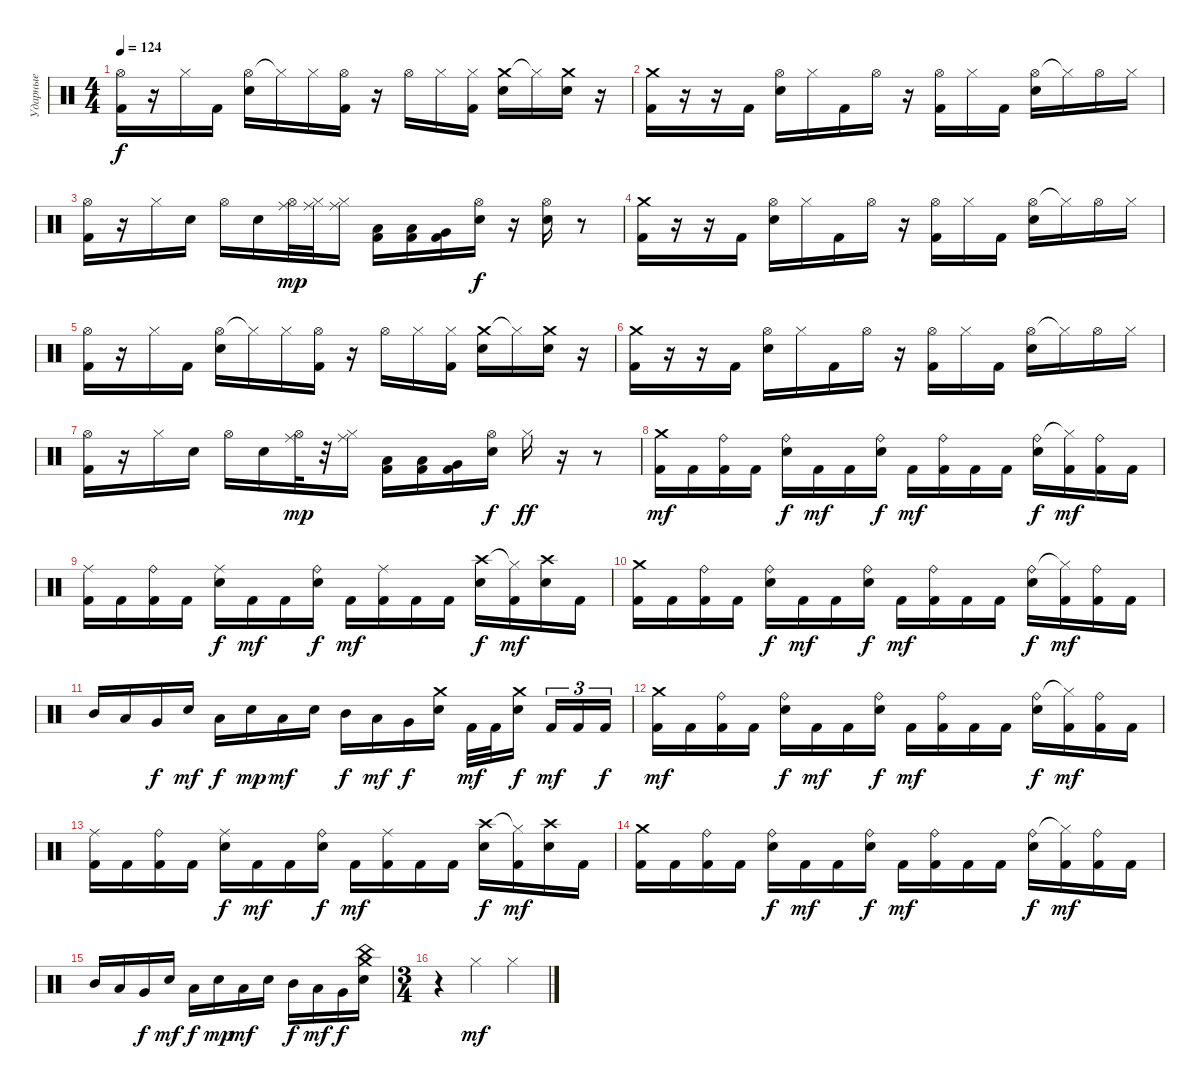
\track ("Ударные" "Ударные") {instrument percussion bank 127}
\staff
\articulation defaults
\ts (4 4)
\tempo 124
\clef neutral
\ks c
("Hi-Hat (open)" "Kick (hit) 2").16{dy f} r.16 "Hi-Hat (closed)".16 "Kick (hit) 2".16 ("Hi-Hat (open)" "Snare (hit) 2").16 "Hi-Hat (closed)"{t}.16 "Hi-Hat (closed)".16 ("Hi-Hat (open)" "Kick (hit) 2").16 r.16 "Hi-Hat (open)".16 "Hi-Hat (closed)".16 ("Hi-Hat (closed)" "Kick (hit) 2").16 ("Crash medium (hit)" "Snare (hit) 2").16 "Hi-Hat (closed)"{t}.16 ("Crash medium (hit)" "Snare (hit) 2").16 r.16 |
("Crash medium (hit)" "Kick (hit) 2").16 r.16 r.16 "Kick (hit) 2".16 ("Hi-Hat (open)" "Snare (hit) 2").16 "Hi-Hat (closed)".16 "Kick (hit) 2".16 "Hi-Hat (open)".16 r.16 ("Hi-Hat (open)" "Kick (hit) 2").16 "Hi-Hat (closed)".16 "Kick (hit) 2".16 ("Hi-Hat (open)" "Snare (hit) 2").16 "Hi-Hat (closed)"{t}.16 "Hi-Hat (open)".16 "Hi-Hat (closed)".16 |
("Hi-Hat (open)" "Kick (hit) 2").16 r.16 "Hi-Hat (closed)".16 "Snare (hit) 2".16 "Hi-Hat (open)".16 "Snare (hit) 2".16 ("Hi-Hat (open)" "Ride (middle)").32{dy mp} ("Hi-Hat (closed)" "Ride (middle)").32 ("Hi-Hat (closed)" "Ride (middle)").16 ("Low Tom (hit)" "Kick (hit) 2").16 ("Low Tom (hit)" "Kick (hit) 2").16 ("Very Low Tom (hit)" "Kick (hit) 2").16 ("Hi-Hat (open)" "Snare (hit) 2").16{dy f} r.16 ("Hi-Hat (open)" "Snare (hit) 2").16 r.8 |
("Crash medium (hit)" "Kick (hit) 2").16 r.16 r.16 "Kick (hit) 2".16 ("Hi-Hat (open)" "Snare (hit) 2").16 "Hi-Hat (closed)".16 "Kick (hit) 2".16 "Hi-Hat (open)".16 r.16 ("Hi-Hat (open)" "Kick (hit) 2").16 "Hi-Hat (closed)".16 "Kick (hit) 2".16 ("Hi-Hat (open)" "Snare (hit) 2").16 "Hi-Hat (closed)"{t}.16 "Hi-Hat (open)".16 "Hi-Hat (closed)".16 |
("Hi-Hat (open)" "Kick (hit) 2").16 r.16 "Hi-Hat (closed)".16 "Kick (hit) 2".16 ("Hi-Hat (open)" "Snare (hit) 2").16 "Hi-Hat (closed)"{t}.16 "Hi-Hat (closed)".16 ("Hi-Hat (open)" "Kick (hit) 2").16 r.16 "Hi-Hat (open)".16 "Hi-Hat (closed)".16 ("Hi-Hat (closed)" "Kick (hit) 2").16 ("Crash medium (hit)" "Snare (hit) 2").16 "Hi-Hat (closed)"{t}.16 ("Crash medium (hit)" "Snare (hit) 2").16 r.16 |
("Crash medium (hit)" "Kick (hit) 2").16 r.16 r.16 "Kick (hit) 2".16 ("Hi-Hat (open)" "Snare (hit) 2").16 "Hi-Hat (closed)".16 "Kick (hit) 2".16 "Hi-Hat (open)".16 r.16 ("Hi-Hat (open)" "Kick (hit) 2").16 "Hi-Hat (closed)".16 "Kick (hit) 2".16 ("Hi-Hat (open)" "Snare (hit) 2").16 "Hi-Hat (closed)"{t}.16 "Hi-Hat (open)".16 "Hi-Hat (closed)".16 |
("Hi-Hat (open)" "Kick (hit) 2").16 r.16 "Hi-Hat (closed)".16 "Snare (hit) 2".16 "Hi-Hat (open)".16 "Snare (hit) 2".16 ("Hi-Hat (open)" "Ride (middle)").32{dy mp} r.32 ("Hi-Hat (closed)" "Ride (middle)").16 ("Low Tom (hit)" "Kick (hit) 2").16 ("Low Tom (hit)" "Kick (hit) 2").16 ("Very Low Tom (hit)" "Kick (hit) 2").16 ("Hi-Hat (open)" "Snare (hit) 2").16{dy f} "Hi-Hat (closed)".16{dy ff} r.16 r.8 |
("Crash medium (hit)" "Kick (hit) 2").16{dy mf} "Kick (hit) 2".16 ("Ride (bell)" "Kick (hit) 2").16 "Kick (hit) 2".16 ("Ride (bell)" "Snare (hit) 2").16{dy f} "Kick (hit) 2".16{dy mf} "Kick (hit) 2".16 ("Snare (hit) 2" "Ride (bell)").16{dy f} "Kick (hit) 2".16{dy mf} ("Ride (bell)" "Kick (hit) 2").16 "Kick (hit) 2".16 "Kick (hit) 2".16 ("Ride (bell)" "Snare (hit) 2").16{dy f} ("Hi-Hat (closed)"{t} "Kick (hit) 2").16{dy mf} ("Ride (bell)" "Kick (hit) 2").16 "Kick (hit) 2".16 |
("Ride (middle)" "Kick (hit) 2").16 "Kick (hit) 2".16 ("Ride (bell)" "Kick (hit) 2").16 "Kick (hit) 2".16 ("Ride (middle)" "Snare (hit) 2").16{dy f} "Kick (hit) 2".16{dy mf} "Kick (hit) 2".16 ("Snare (hit) 2" "Ride (bell)").16{dy f} "Kick (hit) 2".16{dy mf} ("Ride (middle)" "Kick (hit) 2").16 "Kick (hit) 2".16 "Kick (hit) 2".16 ("Crash high (hit)" "Snare (hit) 2").16{dy f} ("Hi-Hat (closed)"{t} "Kick (hit) 2").16{dy mf} ("Crash high (hit)" "Snare (hit) 2").16 "Kick (hit) 2".16 |
("Crash medium (hit)" "Kick (hit) 2").16 "Kick (hit) 2".16 ("Ride (bell)" "Kick (hit) 2").16 "Kick (hit) 2".16 ("Ride (bell)" "Snare (hit) 2").16{dy f} "Kick (hit) 2".16{dy mf} "Kick (hit) 2".16 ("Snare (hit) 2" "Ride (bell)").16{dy f} "Kick (hit) 2".16{dy mf} ("Ride (bell)" "Kick (hit) 2").16 "Kick (hit) 2".16 "Kick (hit) 2".16 ("Ride (bell)" "Snare (hit) 2").16{dy f} ("Hi-Hat (closed)"{t} "Kick (hit) 2").16{dy mf} ("Ride (bell)" "Kick (hit) 2").16 "Kick (hit) 2".16 |
"Mid Tom (hit)".16 "Low Tom (hit)".16 "Very Low Tom (hit)".16{dy f} "Metronome (bell)".16{dy mf} "Low Tom (hit)".16{dy f} "Metronome (bell)".16{dy mp} "Low Tom (hit)".16{dy mf} "Metronome (bell)".16 "Mid Tom (hit)".16{dy f} "Low Tom (hit)".16{dy mf} "Very Low Tom (hit)".16{dy f} ("Crash medium (hit)" "Snare (hit) 2").16 "Kick (hit) 2".32{dy mf} "Kick (hit) 2".32 ("Crash medium (hit)" "Snare (hit) 2").16{dy f beam splitsecondary} "Kick (hit) 2".16{tu (3 2) dy mf} "Kick (hit) 2".16{tu (3 2)} "Kick (hit) 2".16{tu (3 2) dy f} |
("Crash medium (hit)" "Kick (hit) 2").16{dy mf} "Kick (hit) 2".16 ("Ride (bell)" "Kick (hit) 2").16 "Kick (hit) 2".16 ("Ride (bell)" "Snare (hit) 2").16{dy f} "Kick (hit) 2".16{dy mf} "Kick (hit) 2".16 ("Snare (hit) 2" "Ride (bell)").16{dy f} "Kick (hit) 2".16{dy mf} ("Ride (bell)" "Kick (hit) 2").16 "Kick (hit) 2".16 "Kick (hit) 2".16 ("Ride (bell)" "Snare (hit) 2").16{dy f} ("Hi-Hat (closed)"{t} "Kick (hit) 2").16{dy mf} ("Ride (bell)" "Kick (hit) 2").16 "Kick (hit) 2".16 |
("Ride (middle)" "Kick (hit) 2").16 "Kick (hit) 2".16 ("Ride (bell)" "Kick (hit) 2").16 "Kick (hit) 2".16 ("Ride (middle)" "Snare (hit) 2").16{dy f} "Kick (hit) 2".16{dy mf} "Kick (hit) 2".16 ("Snare (hit) 2" "Ride (bell)").16{dy f} "Kick (hit) 2".16{dy mf} ("Ride (middle)" "Kick (hit) 2").16 "Kick (hit) 2".16 "Kick (hit) 2".16 ("Crash high (hit)" "Snare (hit) 2").16{dy f} ("Hi-Hat (closed)"{t} "Kick (hit) 2").16{dy mf} ("Crash high (hit)" "Snare (hit) 2").16 "Kick (hit) 2".16 |
("Crash medium (hit)" "Kick (hit) 2").16 "Kick (hit) 2".16 ("Ride (bell)" "Kick (hit) 2").16 "Kick (hit) 2".16 ("Ride (bell)" "Snare (hit) 2").16{dy f} "Kick (hit) 2".16{dy mf} "Kick (hit) 2".16 ("Snare (hit) 2" "Ride (bell)").16{dy f} "Kick (hit) 2".16{dy mf} ("Ride (bell)" "Kick (hit) 2").16 "Kick (hit) 2".16 "Kick (hit) 2".16 ("Ride (bell)" "Snare (hit) 2").16{dy f} ("Hi-Hat (closed)"{t} "Kick (hit) 2").16{dy mf} ("Ride (bell)" "Kick (hit) 2").16 "Kick (hit) 2".16 |
"Mid Tom (hit)".16 "Low Tom (hit)".16 "Very Low Tom (hit)".16{dy f} "Metronome (bell)".16{dy mf} "Low Tom (hit)".16{dy f} "Metronome (bell)".16{dy mp} "Low Tom (hit)".16{dy mf} "Metronome (bell)".16 "Mid Tom (hit)".16{dy f} "Low Tom (hit)".16{dy mf} "Very Low Tom (hit)".16{dy f} ("Crash medium (hit)" "China (hit)" "Snare (hit) 2").16 |
\ts (3 4)
r.4 "Hi-Hat (closed)".4{dy mf} "Hi-Hat (closed)".4
